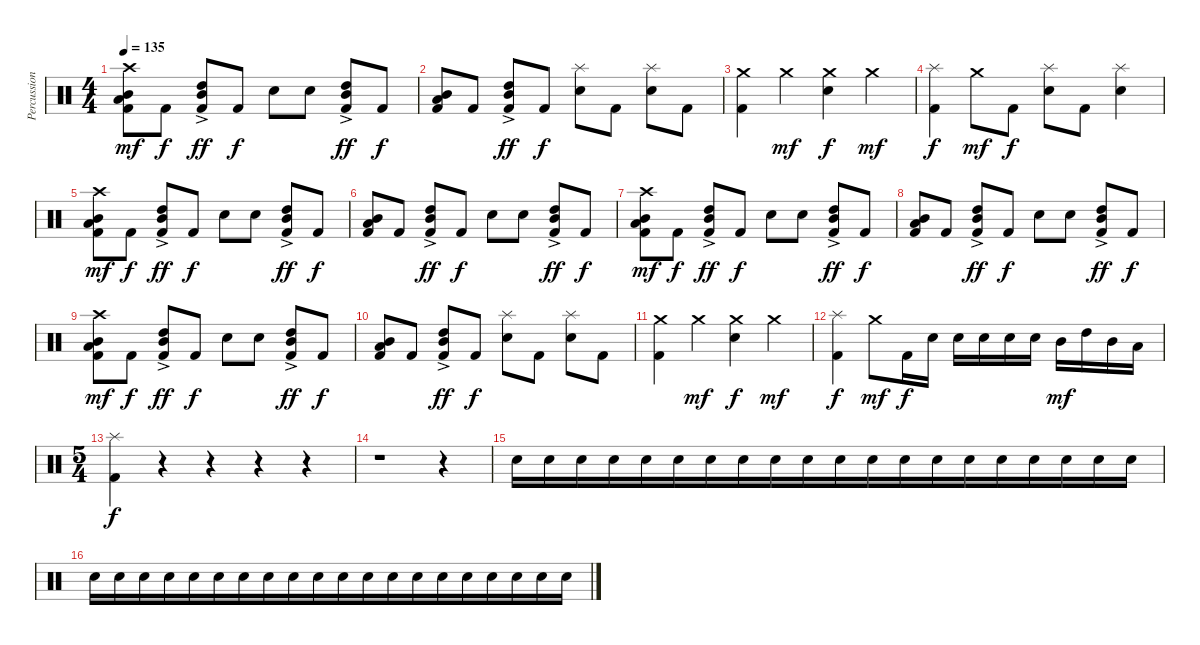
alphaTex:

\track ("Percussion" "Percussion") {instrument percussion}
\staff {score}
\articulation defaults
\ts (4 4)
\tempo 135
\clef neutral
\ks c
("Crash high (hit)" "Mid Tom (hit)" "Low Tom (hit)" "Kick (hit) 2").8{dy mf} "Kick (hit) 2".8{dy f} ("High Tom (hit)"{ac} "Mid Tom (hit)"{ac} "Kick (hit) 2").8{dy ff} "Kick (hit) 2".8{dy f} "Snare (hit) 2".8 "Snare (hit) 2".8 ("High Tom (hit)"{ac} "Mid Tom (hit)"{ac} "Kick (hit) 2").8{dy ff} "Kick (hit) 2".8{dy f} |
("Mid Tom (hit)" "Low Tom (hit)" "Kick (hit) 2").8 "Kick (hit) 2".8 ("High Tom (hit)"{ac} "Mid Tom (hit)"{ac} "Kick (hit) 2").8{dy ff} "Kick (hit) 2".8{dy f} ("Splash (hit)" "Snare (hit) 2").8 "Kick (hit) 2".8 ("Splash (hit)" "Snare (hit) 2").8 "Kick (hit) 2".8 |
("Crash medium (hit)" "Kick (hit) 2").4 "Crash medium (hit)".4{dy mf} ("Crash medium (hit)" "Snare (hit) 2").4{dy f} "Crash medium (hit)".4{dy mf} |
("Splash (hit)" "Kick (hit) 2").4{dy f} "Crash medium (hit)".8{dy mf} "Kick (hit) 2".8{dy f} ("Splash (hit)" "Snare (hit) 2").8 "Kick (hit) 2".8 ("Splash (hit)" "Snare (hit) 2").4 |
("Crash high (hit)" "Mid Tom (hit)" "Low Tom (hit)" "Kick (hit) 2").8{dy mf} "Kick (hit) 2".8{dy f} ("High Tom (hit)"{ac} "Mid Tom (hit)"{ac} "Kick (hit) 2").8{dy ff} "Kick (hit) 2".8{dy f} "Snare (hit) 2".8 "Snare (hit) 2".8 ("High Tom (hit)"{ac} "Mid Tom (hit)"{ac} "Kick (hit) 2").8{dy ff} "Kick (hit) 2".8{dy f} |
("Mid Tom (hit)" "Low Tom (hit)" "Kick (hit) 2").8 "Kick (hit) 2".8 ("High Tom (hit)"{ac} "Mid Tom (hit)"{ac} "Kick (hit) 2").8{dy ff} "Kick (hit) 2".8{dy f} "Snare (hit) 2".8 "Snare (hit) 2".8 ("High Tom (hit)"{ac} "Mid Tom (hit)"{ac} "Kick (hit) 2").8{dy ff} "Kick (hit) 2".8{dy f} |
("Crash high (hit)" "Mid Tom (hit)" "Low Tom (hit)" "Kick (hit) 2").8{dy mf} "Kick (hit) 2".8{dy f} ("High Tom (hit)"{ac} "Mid Tom (hit)"{ac} "Kick (hit) 2").8{dy ff} "Kick (hit) 2".8{dy f} "Snare (hit) 2".8 "Snare (hit) 2".8 ("High Tom (hit)"{ac} "Mid Tom (hit)"{ac} "Kick (hit) 2").8{dy ff} "Kick (hit) 2".8{dy f} |
("Mid Tom (hit)" "Low Tom (hit)" "Kick (hit) 2").8 "Kick (hit) 2".8 ("High Tom (hit)"{ac} "Mid Tom (hit)"{ac} "Kick (hit) 2").8{dy ff} "Kick (hit) 2".8{dy f} "Snare (hit) 2".8 "Snare (hit) 2".8 ("High Tom (hit)"{ac} "Mid Tom (hit)"{ac} "Kick (hit) 2").8{dy ff} "Kick (hit) 2".8{dy f} |
("Crash high (hit)" "Mid Tom (hit)" "Low Tom (hit)" "Kick (hit) 2").8{dy mf} "Kick (hit) 2".8{dy f} ("High Tom (hit)"{ac} "Mid Tom (hit)"{ac} "Kick (hit) 2").8{dy ff} "Kick (hit) 2".8{dy f} "Snare (hit) 2".8 "Snare (hit) 2".8 ("High Tom (hit)"{ac} "Mid Tom (hit)"{ac} "Kick (hit) 2").8{dy ff} "Kick (hit) 2".8{dy f} |
("Mid Tom (hit)" "Low Tom (hit)" "Kick (hit) 2").8 "Kick (hit) 2".8 ("High Tom (hit)"{ac} "Mid Tom (hit)"{ac} "Kick (hit) 2").8{dy ff} "Kick (hit) 2".8{dy f} ("Splash (hit)" "Snare (hit) 2").8 "Kick (hit) 2".8 ("Splash (hit)" "Snare (hit) 2").8 "Kick (hit) 2".8 |
("Crash medium (hit)" "Kick (hit) 2").4 "Crash medium (hit)".4{dy mf} ("Crash medium (hit)" "Snare (hit) 2").4{dy f} "Crash medium (hit)".4{dy mf} |
("Splash (hit)" "Kick (hit) 2").4{dy f} "Crash medium (hit)".8{dy mf} "Kick (hit) 2".16{dy f} "Snare (hit) 2".16 "Snare (hit) 2".16 "Snare (hit) 2".16 "Snare (hit) 2".16 "Snare (hit) 2".16 "Mid Tom (hit)".16{dy mf} "High Tom (hit)".16 "Mid Tom (hit)".16 "Low Tom (hit)".16 |
\ts (5 4)
("Splash (hit)" "Kick (hit) 2").4{dy f} r.4 r.4 r.4 r.4 |
r.1 r.4 |
"Snare (hit) 2".16 "Snare (hit) 2".16{beam merge} "Snare (hit) 2".16{beam merge} "Snare (hit) 2".16{beam merge} "Snare (hit) 2".16{beam merge} "Snare (hit) 2".16{beam merge} "Snare (hit) 2".16{beam merge} "Snare (hit) 2".16{beam merge} "Snare (hit) 2".16{beam merge} "Snare (hit) 2".16{beam merge} "Snare (hit) 2".16{beam merge} "Snare (hit) 2".16{beam merge} "Snare (hit) 2".16{beam merge} "Snare (hit) 2".16{beam merge} "Snare (hit) 2".16{beam merge} "Snare (hit) 2".16{beam merge} "Snare (hit) 2".16{beam merge} "Snare (hit) 2".16{beam merge} "Snare (hit) 2".16{beam merge} "Snare (hit) 2".16 |
"Snare (hit) 2".16{beam merge} "Snare (hit) 2".16{beam merge} "Snare (hit) 2".16{beam merge} "Snare (hit) 2".16{beam merge} "Snare (hit) 2".16{beam merge} "Snare (hit) 2".16{beam merge} "Snare (hit) 2".16{beam merge} "Snare (hit) 2".16{beam merge} "Snare (hit) 2".16{beam merge} "Snare (hit) 2".16{beam merge} "Snare (hit) 2".16{beam merge} "Snare (hit) 2".16{beam merge} "Snare (hit) 2".16{beam merge} "Snare (hit) 2".16{beam merge} "Snare (hit) 2".16{beam merge} "Snare (hit) 2".16{beam merge} "Snare (hit) 2".16{beam merge} "Snare (hit) 2".16{beam merge} "Snare (hit) 2".16{beam merge} "Snare (hit) 2".16
